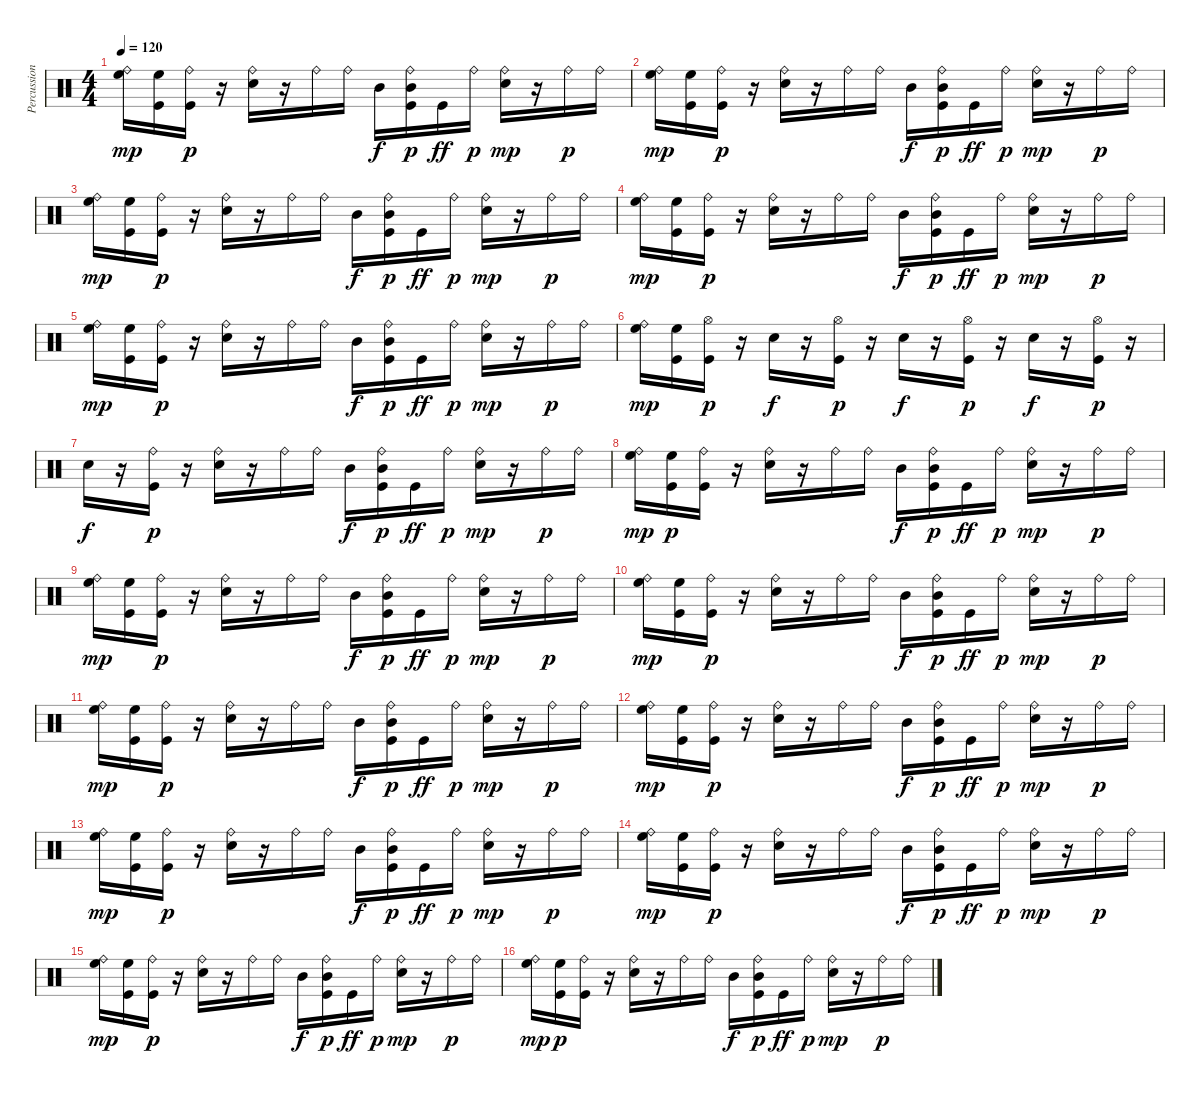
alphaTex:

\track ("Percussions" "Percussion") {instrument percussion}
\staff {score}
\articulation defaults
\ts (4 4)
\tempo 120
\clef neutral
\ks c
("High Floor Tom (hit)" "Ride (bell)").16{dy mp} ("Kick (hit)" "High Floor Tom (hit)").16 ("Kick (hit)" "Ride (bell)").16{dy p} r.16 ("Snare (hit) 2" "Ride (bell)").16 r.16 "Ride (bell)".16 "Ride (bell)".16 "Mid Tom (hit)".16{dy f} ("Kick (hit)" "Mid Tom (hit)" "Ride (bell)").16{dy p} "Kick (hit)".16{dy ff} "Ride (bell)".16{dy p} ("Snare (hit) 2" "Ride (bell)").16{dy mp} r.16 "Ride (bell)".16{dy p} "Ride (bell)".16 |
("High Floor Tom (hit)" "Ride (bell)").16{dy mp} ("Kick (hit)" "High Floor Tom (hit)").16 ("Kick (hit)" "Ride (bell)").16{dy p} r.16 ("Snare (hit) 2" "Ride (bell)").16 r.16 "Ride (bell)".16 "Ride (bell)".16 "Mid Tom (hit)".16{dy f} ("Kick (hit)" "Mid Tom (hit)" "Ride (bell)").16{dy p} "Kick (hit)".16{dy ff} "Ride (bell)".16{dy p} ("Snare (hit) 2" "Ride (bell)").16{dy mp} r.16 "Ride (bell)".16{dy p} "Ride (bell)".16 |
("High Floor Tom (hit)" "Ride (bell)").16{dy mp} ("Kick (hit)" "High Floor Tom (hit)").16 ("Kick (hit)" "Ride (bell)").16{dy p} r.16 ("Snare (hit) 2" "Ride (bell)").16 r.16 "Ride (bell)".16 "Ride (bell)".16 "Mid Tom (hit)".16{dy f} ("Kick (hit)" "Mid Tom (hit)" "Ride (bell)").16{dy p} "Kick (hit)".16{dy ff} "Ride (bell)".16{dy p} ("Snare (hit) 2" "Ride (bell)").16{dy mp} r.16 "Ride (bell)".16{dy p} "Ride (bell)".16 |
("High Floor Tom (hit)" "Ride (bell)").16{dy mp} ("Kick (hit)" "High Floor Tom (hit)").16 ("Kick (hit)" "Ride (bell)").16{dy p} r.16 ("Snare (hit) 2" "Ride (bell)").16 r.16 "Ride (bell)".16 "Ride (bell)".16 "Mid Tom (hit)".16{dy f} ("Kick (hit)" "Mid Tom (hit)" "Ride (bell)").16{dy p} "Kick (hit)".16{dy ff} "Ride (bell)".16{dy p} ("Snare (hit) 2" "Ride (bell)").16{dy mp} r.16 "Ride (bell)".16{dy p} "Ride (bell)".16 |
("High Floor Tom (hit)" "Ride (bell)").16{dy mp} ("Kick (hit)" "High Floor Tom (hit)").16 ("Kick (hit)" "Ride (bell)").16{dy p} r.16 ("Snare (hit) 2" "Ride (bell)").16 r.16 "Ride (bell)".16 "Ride (bell)".16 "Mid Tom (hit)".16{dy f} ("Kick (hit)" "Mid Tom (hit)" "Ride (bell)").16{dy p} "Kick (hit)".16{dy ff} "Ride (bell)".16{dy p} ("Snare (hit) 2" "Ride (bell)").16{dy mp} r.16 "Ride (bell)".16{dy p} "Ride (bell)".16 |
("High Floor Tom (hit)" "Ride (bell)").16{dy mp} ("Kick (hit)" "High Floor Tom (hit)").16 ("Kick (hit)" "Hi-Hat (open)").16{dy p} r.16 "Snare (hit) 2".16{dy f} r.16 ("Kick (hit)" "Hi-Hat (open)").16{dy p} r.16 "Snare (hit) 2".16{dy f} r.16 ("Kick (hit)" "Hi-Hat (open)").16{dy p} r.16 "Snare (hit) 2".16{dy f} r.16 ("Kick (hit)" "Hi-Hat (open)").16{dy p} r.16 |
"Snare (hit) 2".16{dy f} r.16 ("Kick (hit)" "Ride (bell)").16{dy p} r.16 ("Snare (hit) 2" "Ride (bell)").16 r.16 "Ride (bell)".16 "Ride (bell)".16 "Mid Tom (hit)".16{dy f} ("Kick (hit)" "Mid Tom (hit)" "Ride (bell)").16{dy p} "Kick (hit)".16{dy ff} "Ride (bell)".16{dy p} ("Snare (hit) 2" "Ride (bell)").16{dy mp} r.16 "Ride (bell)".16{dy p} "Ride (bell)".16 |
("High Floor Tom (hit)" "Ride (bell)").16{dy mp} ("Kick (hit)" "High Floor Tom (hit)").16{dy p} ("Kick (hit)" "Ride (bell)").16 r.16 ("Snare (hit) 2" "Ride (bell)").16 r.16 "Ride (bell)".16 "Ride (bell)".16 "Mid Tom (hit)".16{dy f} ("Kick (hit)" "Mid Tom (hit)" "Ride (bell)").16{dy p} "Kick (hit)".16{dy ff} "Ride (bell)".16{dy p} ("Snare (hit) 2" "Ride (bell)").16{dy mp} r.16 "Ride (bell)".16{dy p} "Ride (bell)".16 |
("High Floor Tom (hit)" "Ride (bell)").16{dy mp} ("Kick (hit)" "High Floor Tom (hit)").16 ("Kick (hit)" "Ride (bell)").16{dy p} r.16 ("Snare (hit) 2" "Ride (bell)").16 r.16 "Ride (bell)".16 "Ride (bell)".16 "Mid Tom (hit)".16{dy f} ("Kick (hit)" "Mid Tom (hit)" "Ride (bell)").16{dy p} "Kick (hit)".16{dy ff} "Ride (bell)".16{dy p} ("Snare (hit) 2" "Ride (bell)").16{dy mp} r.16 "Ride (bell)".16{dy p} "Ride (bell)".16 |
("High Floor Tom (hit)" "Ride (bell)").16{dy mp} ("Kick (hit)" "High Floor Tom (hit)").16 ("Kick (hit)" "Ride (bell)").16{dy p} r.16 ("Snare (hit) 2" "Ride (bell)").16 r.16 "Ride (bell)".16 "Ride (bell)".16 "Mid Tom (hit)".16{dy f} ("Kick (hit)" "Mid Tom (hit)" "Ride (bell)").16{dy p} "Kick (hit)".16{dy ff} "Ride (bell)".16{dy p} ("Snare (hit) 2" "Ride (bell)").16{dy mp} r.16 "Ride (bell)".16{dy p} "Ride (bell)".16 |
("High Floor Tom (hit)" "Ride (bell)").16{dy mp} ("Kick (hit)" "High Floor Tom (hit)").16 ("Kick (hit)" "Ride (bell)").16{dy p} r.16 ("Snare (hit) 2" "Ride (bell)").16 r.16 "Ride (bell)".16 "Ride (bell)".16 "Mid Tom (hit)".16{dy f} ("Kick (hit)" "Mid Tom (hit)" "Ride (bell)").16{dy p} "Kick (hit)".16{dy ff} "Ride (bell)".16{dy p} ("Snare (hit) 2" "Ride (bell)").16{dy mp} r.16 "Ride (bell)".16{dy p} "Ride (bell)".16 |
("High Floor Tom (hit)" "Ride (bell)").16{dy mp} ("Kick (hit)" "High Floor Tom (hit)").16 ("Kick (hit)" "Ride (bell)").16{dy p} r.16 ("Snare (hit) 2" "Ride (bell)").16 r.16 "Ride (bell)".16 "Ride (bell)".16 "Mid Tom (hit)".16{dy f} ("Kick (hit)" "Mid Tom (hit)" "Ride (bell)").16{dy p} "Kick (hit)".16{dy ff} "Ride (bell)".16{dy p} ("Snare (hit) 2" "Ride (bell)").16{dy mp} r.16 "Ride (bell)".16{dy p} "Ride (bell)".16 |
("High Floor Tom (hit)" "Ride (bell)").16{dy mp} ("Kick (hit)" "High Floor Tom (hit)").16 ("Kick (hit)" "Ride (bell)").16{dy p} r.16 ("Snare (hit) 2" "Ride (bell)").16 r.16 "Ride (bell)".16 "Ride (bell)".16 "Mid Tom (hit)".16{dy f} ("Kick (hit)" "Mid Tom (hit)" "Ride (bell)").16{dy p} "Kick (hit)".16{dy ff} "Ride (bell)".16{dy p} ("Snare (hit) 2" "Ride (bell)").16{dy mp} r.16 "Ride (bell)".16{dy p} "Ride (bell)".16 |
("High Floor Tom (hit)" "Ride (bell)").16{dy mp} ("Kick (hit)" "High Floor Tom (hit)").16 ("Kick (hit)" "Ride (bell)").16{dy p} r.16 ("Snare (hit) 2" "Ride (bell)").16 r.16 "Ride (bell)".16 "Ride (bell)".16 "Mid Tom (hit)".16{dy f} ("Kick (hit)" "Mid Tom (hit)" "Ride (bell)").16{dy p} "Kick (hit)".16{dy ff} "Ride (bell)".16{dy p} ("Snare (hit) 2" "Ride (bell)").16{dy mp} r.16 "Ride (bell)".16{dy p} "Ride (bell)".16 |
("High Floor Tom (hit)" "Ride (bell)").16{dy mp} ("Kick (hit)" "High Floor Tom (hit)").16 ("Kick (hit)" "Ride (bell)").16{dy p} r.16 ("Snare (hit) 2" "Ride (bell)").16 r.16 "Ride (bell)".16 "Ride (bell)".16 "Mid Tom (hit)".16{dy f} ("Kick (hit)" "Mid Tom (hit)" "Ride (bell)").16{dy p} "Kick (hit)".16{dy ff} "Ride (bell)".16{dy p} ("Snare (hit) 2" "Ride (bell)").16{dy mp} r.16 "Ride (bell)".16{dy p} "Ride (bell)".16 |
("High Floor Tom (hit)" "Ride (bell)").16{dy mp} ("Kick (hit)" "High Floor Tom (hit)").16{dy p} ("Kick (hit)" "Ride (bell)").16 r.16 ("Snare (hit) 2" "Ride (bell)").16 r.16 "Ride (bell)".16 "Ride (bell)".16 "Mid Tom (hit)".16{dy f} ("Kick (hit)" "Mid Tom (hit)" "Ride (bell)").16{dy p} "Kick (hit)".16{dy ff} "Ride (bell)".16{dy p} ("Snare (hit) 2" "Ride (bell)").16{dy mp} r.16 "Ride (bell)".16{dy p} "Ride (bell)".16
